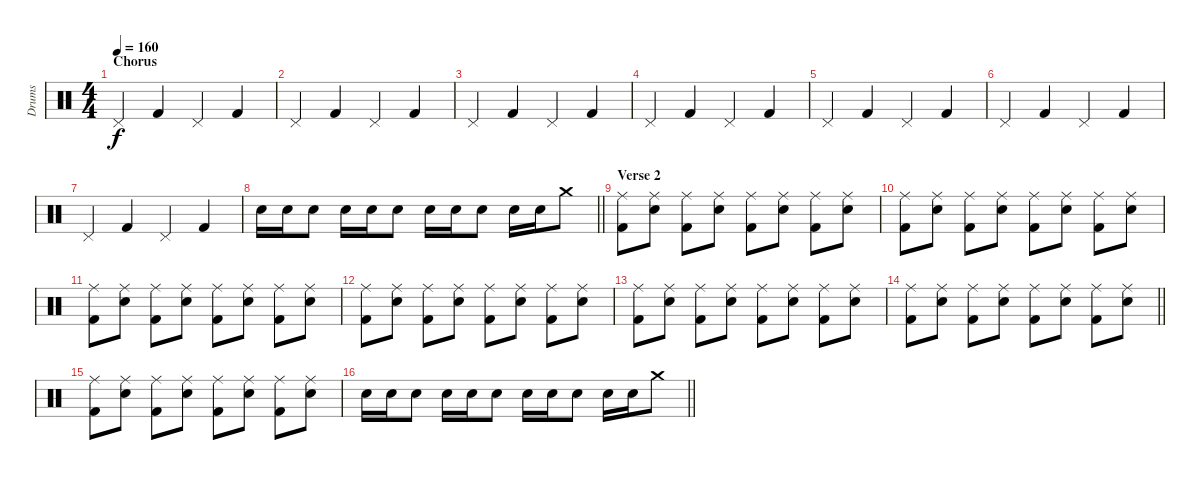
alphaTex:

\track ("Drums" "Drums") {instrument percussion}
\staff {score}
\articulation defaults
\ts (4 4)
\section ("" "Chorus")
\tempo 160
\clef neutral
\ks c "Pedal Hi-Hat (hit)".4{dy f} "Kick (hit) 2".4 "Pedal Hi-Hat (hit)".4 "Kick (hit) 2".4
|
"Pedal Hi-Hat (hit)".4 "Kick (hit) 2".4 "Pedal Hi-Hat (hit)".4 "Kick (hit) 2".4 |
"Pedal Hi-Hat (hit)".4 "Kick (hit) 2".4 "Pedal Hi-Hat (hit)".4 "Kick (hit) 2".4 |
"Pedal Hi-Hat (hit)".4 "Kick (hit) 2".4 "Pedal Hi-Hat (hit)".4 "Kick (hit) 2".4 |
"Pedal Hi-Hat (hit)".4 "Kick (hit) 2".4 "Pedal Hi-Hat (hit)".4 "Kick (hit) 2".4 |
"Pedal Hi-Hat (hit)".4 "Kick (hit) 2".4 "Pedal Hi-Hat (hit)".4 "Kick (hit) 2".4 |
"Pedal Hi-Hat (hit)".4 "Kick (hit) 2".4 "Pedal Hi-Hat (hit)".4 "Kick (hit) 2".4 |
\barLineRight lightlight "Electric Snare (hit)".16 "Electric Snare (hit)".16 "Electric Snare (hit)".8 "Electric Snare (hit)".16 "Electric Snare (hit)".16 "Electric Snare (hit)".8 "Electric Snare (hit)".16 "Electric Snare (hit)".16 "Electric Snare (hit)".8 "Electric Snare (hit)".16 "Electric Snare (hit)".16 "Crash medium (hit)".8
|
\section ("" "Verse 2")
("Ride (middle)" "Kick (hit) 2").8 ("Ride (middle)" "Electric Snare (hit)").8 ("Ride (middle)" "Kick (hit) 2").8 ("Ride (middle)" "Electric Snare (hit)").8 ("Ride (middle)" "Kick (hit) 2").8 ("Ride (middle)" "Electric Snare (hit)").8 ("Ride (middle)" "Kick (hit) 2").8 ("Ride (middle)" "Electric Snare (hit)").8 |
("Ride (middle)" "Kick (hit) 2").8 ("Ride (middle)" "Electric Snare (hit)").8 ("Ride (middle)" "Kick (hit) 2").8 ("Ride (middle)" "Electric Snare (hit)").8 ("Ride (middle)" "Kick (hit) 2").8 ("Ride (middle)" "Electric Snare (hit)").8 ("Ride (middle)" "Kick (hit) 2").8 ("Ride (middle)" "Electric Snare (hit)").8 |
("Ride (middle)" "Kick (hit) 2").8 ("Ride (middle)" "Electric Snare (hit)").8 ("Ride (middle)" "Kick (hit) 2").8 ("Ride (middle)" "Electric Snare (hit)").8 ("Ride (middle)" "Kick (hit) 2").8 ("Ride (middle)" "Electric Snare (hit)").8 ("Ride (middle)" "Kick (hit) 2").8 ("Ride (middle)" "Electric Snare (hit)").8 |
("Ride (middle)" "Kick (hit) 2").8 ("Ride (middle)" "Electric Snare (hit)").8 ("Ride (middle)" "Kick (hit) 2").8 ("Ride (middle)" "Electric Snare (hit)").8 ("Ride (middle)" "Kick (hit) 2").8 ("Ride (middle)" "Electric Snare (hit)").8 ("Ride (middle)" "Kick (hit) 2").8 ("Ride (middle)" "Electric Snare (hit)").8 |
("Ride (middle)" "Kick (hit) 2").8 ("Ride (middle)" "Electric Snare (hit)").8 ("Ride (middle)" "Kick (hit) 2").8 ("Ride (middle)" "Electric Snare (hit)").8 ("Ride (middle)" "Kick (hit) 2").8 ("Ride (middle)" "Electric Snare (hit)").8 ("Ride (middle)" "Kick (hit) 2").8 ("Ride (middle)" "Electric Snare (hit)").8 |
\barLineRight lightlight
("Ride (middle)" "Kick (hit) 2").8 ("Ride (middle)" "Electric Snare (hit)").8 ("Ride (middle)" "Kick (hit) 2").8 ("Ride (middle)" "Electric Snare (hit)").8 ("Ride (middle)" "Kick (hit) 2").8 ("Ride (middle)" "Electric Snare (hit)").8 ("Ride (middle)" "Kick (hit) 2").8 ("Ride (middle)" "Electric Snare (hit)").8 |
("Ride (middle)" "Kick (hit) 2").8 ("Ride (middle)" "Electric Snare (hit)").8 ("Ride (middle)" "Kick (hit) 2").8 ("Ride (middle)" "Electric Snare (hit)").8 ("Ride (middle)" "Kick (hit) 2").8 ("Ride (middle)" "Electric Snare (hit)").8 ("Ride (middle)" "Kick (hit) 2").8 ("Ride (middle)" "Electric Snare (hit)").8 |
\barLineRight lightlight "Electric Snare (hit)".16 "Electric Snare (hit)".16 "Electric Snare (hit)".8 "Electric Snare (hit)".16 "Electric Snare (hit)".16 "Electric Snare (hit)".8 "Electric Snare (hit)".16 "Electric Snare (hit)".16 "Electric Snare (hit)".8 "Electric Snare (hit)".16 "Electric Snare (hit)".16 "Crash medium (hit)".8
